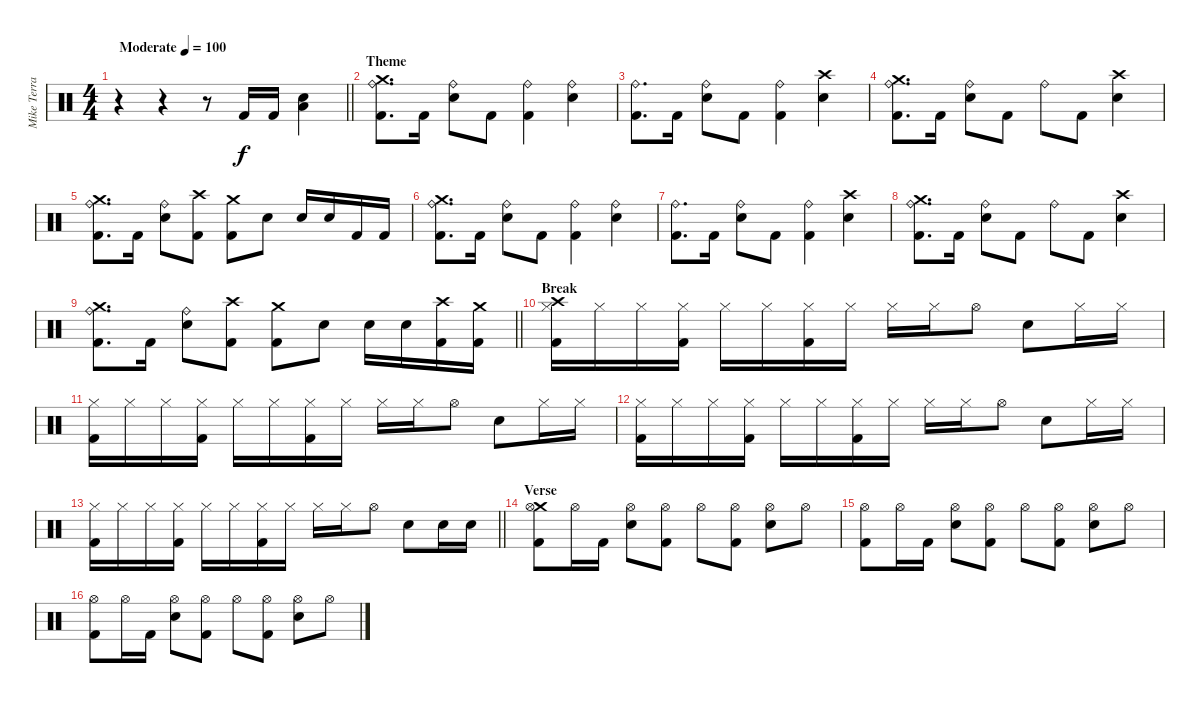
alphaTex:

\track ("Mike Terrana" "Mike Terra") {instrument percussion}
\staff {score}
\articulation defaults
\ts (4 4)
\tempo (100 "Moderate")
\clef neutral
\barLineRight lightlight
\ks c
r.4{dy f} r.4 r.8 "Kick (hit) 2".16 "Kick (hit) 2".16 ("Snare (hit) 2" "Low Tom (hit)").4 |
\section ("" "Theme")
("Crash medium (hit)" "Ride (bell)" "Kick (hit) 2").8{d} "Kick (hit) 2".16 ("Ride (bell)" "Snare (hit) 2").8 "Kick (hit) 2".8 ("Ride (bell)" "Kick (hit) 2").4 ("Ride (bell)" "Snare (hit) 2").4 |
("Ride (bell)" "Kick (hit) 2").8{d} "Kick (hit) 2".16 ("Ride (bell)" "Snare (hit) 2").8 "Kick (hit) 2".8 ("Ride (bell)" "Kick (hit) 2").4 ("Crash high (hit)" "Snare (hit) 2").4 |
("Crash medium (hit)" "Ride (bell)" "Kick (hit) 2").8{d} "Kick (hit) 2".16 ("Ride (bell)" "Snare (hit) 2").8 "Kick (hit) 2".8 "Ride (bell)".8 "Kick (hit) 2".8 ("Crash high (hit)" "Snare (hit) 2").4 |
("Crash medium (hit)" "Ride (bell)" "Kick (hit) 2").8{d} "Kick (hit) 2".16 ("Ride (bell)" "Snare (hit) 2").8 ("Crash high (hit)" "Kick (hit) 2").8 ("Crash medium (hit)" "Kick (hit) 2").8 "Snare (hit) 2".8 "Snare (hit) 2".16 "Snare (hit) 2".16 "Kick (hit) 2".16 "Kick (hit) 2".16 |
("Crash medium (hit)" "Ride (bell)" "Kick (hit) 2").8{d} "Kick (hit) 2".16 ("Ride (bell)" "Snare (hit) 2").8 "Kick (hit) 2".8 ("Ride (bell)" "Kick (hit) 2").4 ("Ride (bell)" "Snare (hit) 2").4 |
("Ride (bell)" "Kick (hit) 2").8{d} "Kick (hit) 2".16 ("Ride (bell)" "Snare (hit) 2").8 "Kick (hit) 2".8 ("Ride (bell)" "Kick (hit) 2").4 ("Crash high (hit)" "Snare (hit) 2").4 |
("Crash medium (hit)" "Ride (bell)" "Kick (hit) 2").8{d} "Kick (hit) 2".16 ("Ride (bell)" "Snare (hit) 2").8 "Kick (hit) 2".8 "Ride (bell)".8 "Kick (hit) 2".8 ("Crash high (hit)" "Snare (hit) 2").4 |
\barLineRight lightlight
("Crash medium (hit)" "Ride (bell)" "Kick (hit) 2").8{d} "Kick (hit) 2".16 ("Ride (bell)" "Snare (hit) 2").8 ("Crash high (hit)" "Kick (hit) 2").8 ("Crash medium (hit)" "Kick (hit) 2").8 "Snare (hit) 2".8 "Snare (hit) 2".16 "Snare (hit) 2".16 ("Crash high (hit)" "Kick (hit) 2").16 ("Crash medium (hit)" "Kick (hit) 2").16 |
\section ("" "Break")
("Crash high (hit)" "Hi-Hat (closed)" "Kick (hit) 2").16 "Hi-Hat (closed)".16 "Hi-Hat (closed)".16 ("Hi-Hat (closed)" "Kick (hit) 2").16 "Hi-Hat (closed)".16 "Hi-Hat (closed)".16 ("Hi-Hat (closed)" "Kick (hit) 2").16 "Hi-Hat (closed)".16 "Hi-Hat (closed)".16 "Hi-Hat (closed)".16 "Hi-Hat (open)".8 "Snare (hit) 2".8 "Hi-Hat (closed)".16 "Hi-Hat (closed)".16 |
("Hi-Hat (closed)" "Kick (hit) 2").16 "Hi-Hat (closed)".16 "Hi-Hat (closed)".16 ("Hi-Hat (closed)" "Kick (hit) 2").16 "Hi-Hat (closed)".16 "Hi-Hat (closed)".16 ("Hi-Hat (closed)" "Kick (hit) 2").16 "Hi-Hat (closed)".16 "Hi-Hat (closed)".16 "Hi-Hat (closed)".16 "Hi-Hat (open)".8 "Snare (hit) 2".8 "Hi-Hat (closed)".16 "Hi-Hat (closed)".16 |
("Hi-Hat (closed)" "Kick (hit) 2").16 "Hi-Hat (closed)".16 "Hi-Hat (closed)".16 ("Hi-Hat (closed)" "Kick (hit) 2").16 "Hi-Hat (closed)".16 "Hi-Hat (closed)".16 ("Hi-Hat (closed)" "Kick (hit) 2").16 "Hi-Hat (closed)".16 "Hi-Hat (closed)".16 "Hi-Hat (closed)".16 "Hi-Hat (open)".8 "Snare (hit) 2".8 "Hi-Hat (closed)".16 "Hi-Hat (closed)".16 |
\barLineRight lightlight
("Hi-Hat (closed)" "Kick (hit) 2").16 "Hi-Hat (closed)".16 "Hi-Hat (closed)".16 ("Hi-Hat (closed)" "Kick (hit) 2").16 "Hi-Hat (closed)".16 "Hi-Hat (closed)".16 ("Hi-Hat (closed)" "Kick (hit) 2").16 "Hi-Hat (closed)".16 "Hi-Hat (closed)".16 "Hi-Hat (closed)".16 "Hi-Hat (open)".8 "Snare (hit) 2".8 "Snare (hit) 2".16 "Snare (hit) 2".16 |
\section ("" "Verse")
("Crash medium (hit)" "Hi-Hat (open)" "Kick (hit) 2").8 "Hi-Hat (open)".16 "Kick (hit) 2".16 ("Hi-Hat (open)" "Snare (hit) 2").8 ("Hi-Hat (open)" "Kick (hit) 2").8 "Hi-Hat (open)".8 ("Hi-Hat (open)" "Kick (hit) 2").8 ("Hi-Hat (open)" "Snare (hit) 2").8 "Hi-Hat (open)".8 |
("Hi-Hat (open)" "Kick (hit) 2").8 "Hi-Hat (open)".16 "Kick (hit) 2".16 ("Hi-Hat (open)" "Snare (hit) 2").8 ("Hi-Hat (open)" "Kick (hit) 2").8 "Hi-Hat (open)".8 ("Hi-Hat (open)" "Kick (hit) 2").8 ("Hi-Hat (open)" "Snare (hit) 2").8 "Hi-Hat (open)".8 |
("Hi-Hat (open)" "Kick (hit) 2").8 "Hi-Hat (open)".16 "Kick (hit) 2".16 ("Hi-Hat (open)" "Snare (hit) 2").8 ("Hi-Hat (open)" "Kick (hit) 2").8 "Hi-Hat (open)".8 ("Hi-Hat (open)" "Kick (hit) 2").8 ("Hi-Hat (open)" "Snare (hit) 2").8 "Hi-Hat (open)".8
